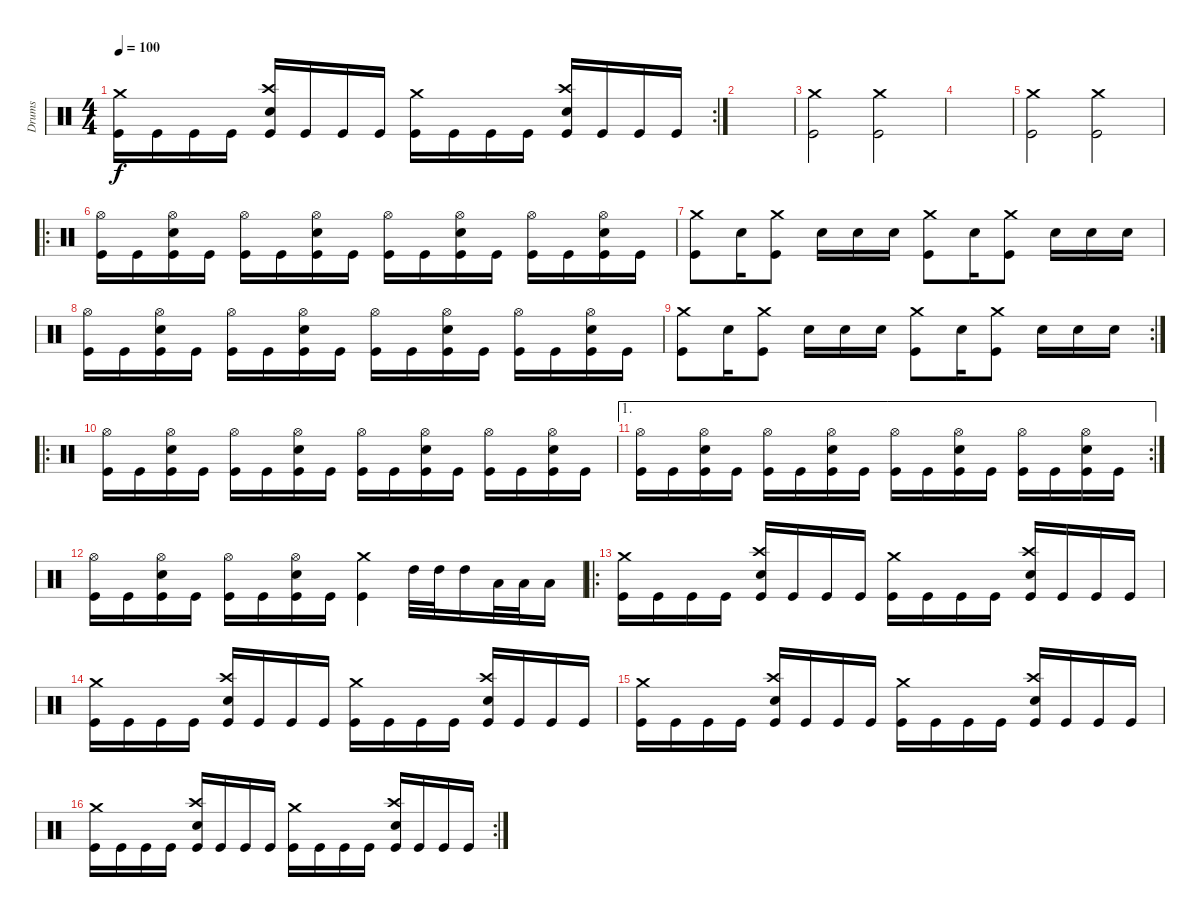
\track ("Drums" "Drums") {instrument percussion}
\staff {score}
\articulation defaults
\rc 2
\ts (4 4)
\tempo 100
\clef neutral
\ks c
("Crash medium (hit)" "Kick (hit)").16{dy f} "Kick (hit)".16 "Kick (hit)".16 "Kick (hit)".16 ("Crash high (hit)" "Snare (hit) 2" "Kick (hit)").16 "Kick (hit)".16 "Kick (hit)".16 "Kick (hit)".16 ("Crash medium (hit)" "Kick (hit)").16 "Kick (hit)".16 "Kick (hit)".16 "Kick (hit)".16 ("Crash high (hit)" "Snare (hit) 2" "Kick (hit)").16 "Kick (hit)".16 "Kick (hit)".16 "Kick (hit)".16 |
|
("Crash medium (hit)" "Kick (hit)").2 ("Crash medium (hit)" "Kick (hit)").2 |
|
("Crash medium (hit)" "Kick (hit)").2 ("Crash medium (hit)" "Kick (hit)").2 |
\ro
("Hi-Hat (open)" "Kick (hit)").16 "Kick (hit)".16 ("Hi-Hat (open)" "Snare (hit) 2" "Kick (hit)").16 "Kick (hit)".16 ("Hi-Hat (open)" "Kick (hit)").16 "Kick (hit)".16 ("Hi-Hat (open)" "Snare (hit) 2" "Kick (hit)").16 "Kick (hit)".16 ("Hi-Hat (open)" "Kick (hit)").16 "Kick (hit)".16 ("Hi-Hat (open)" "Snare (hit) 2" "Kick (hit)").16 "Kick (hit)".16 ("Hi-Hat (open)" "Kick (hit)").16 "Kick (hit)".16 ("Hi-Hat (open)" "Snare (hit) 2" "Kick (hit)").16 "Kick (hit)".16 |
("Crash medium (hit)" "Kick (hit)").8 "Snare (hit) 2".16 ("Crash medium (hit)" "Kick (hit)").8 "Snare (hit) 2".16 "Snare (hit) 2".16 "Snare (hit) 2".16 ("Crash medium (hit)" "Kick (hit)").8 "Snare (hit) 2".16 ("Crash medium (hit)" "Kick (hit)").8 "Snare (hit) 2".16 "Snare (hit) 2".16 "Snare (hit) 2".16 |
("Hi-Hat (open)" "Kick (hit)").16 "Kick (hit)".16 ("Hi-Hat (open)" "Snare (hit) 2" "Kick (hit)").16 "Kick (hit)".16 ("Hi-Hat (open)" "Kick (hit)").16 "Kick (hit)".16 ("Hi-Hat (open)" "Snare (hit) 2" "Kick (hit)").16 "Kick (hit)".16 ("Hi-Hat (open)" "Kick (hit)").16 "Kick (hit)".16 ("Hi-Hat (open)" "Snare (hit) 2" "Kick (hit)").16 "Kick (hit)".16 ("Hi-Hat (open)" "Kick (hit)").16 "Kick (hit)".16 ("Hi-Hat (open)" "Snare (hit) 2" "Kick (hit)").16 "Kick (hit)".16 |
\rc 2
("Crash medium (hit)" "Kick (hit)").8 "Snare (hit) 2".16 ("Crash medium (hit)" "Kick (hit)").8 "Snare (hit) 2".16 "Snare (hit) 2".16 "Snare (hit) 2".16 ("Crash medium (hit)" "Kick (hit)").8 "Snare (hit) 2".16 ("Crash medium (hit)" "Kick (hit)").8 "Snare (hit) 2".16 "Snare (hit) 2".16 "Snare (hit) 2".16 |
\ro
("Hi-Hat (open)" "Kick (hit)").16 "Kick (hit)".16 ("Hi-Hat (open)" "Snare (hit) 2" "Kick (hit)").16 "Kick (hit)".16 ("Hi-Hat (open)" "Kick (hit)").16 "Kick (hit)".16 ("Hi-Hat (open)" "Snare (hit) 2" "Kick (hit)").16 "Kick (hit)".16 ("Hi-Hat (open)" "Kick (hit)").16 "Kick (hit)".16 ("Hi-Hat (open)" "Snare (hit) 2" "Kick (hit)").16 "Kick (hit)".16 ("Hi-Hat (open)" "Kick (hit)").16 "Kick (hit)".16 ("Hi-Hat (open)" "Snare (hit) 2" "Kick (hit)").16 "Kick (hit)".16 |
\ae 1
\rc 2
("Hi-Hat (open)" "Kick (hit)").16 "Kick (hit)".16 ("Hi-Hat (open)" "Snare (hit) 2" "Kick (hit)").16 "Kick (hit)".16 ("Hi-Hat (open)" "Kick (hit)").16 "Kick (hit)".16 ("Hi-Hat (open)" "Snare (hit) 2" "Kick (hit)").16 "Kick (hit)".16 ("Hi-Hat (open)" "Kick (hit)").16 "Kick (hit)".16 ("Hi-Hat (open)" "Snare (hit) 2" "Kick (hit)").16 "Kick (hit)".16 ("Hi-Hat (open)" "Kick (hit)").16 "Kick (hit)".16 ("Hi-Hat (open)" "Snare (hit) 2" "Kick (hit)").16 "Kick (hit)".16 |
("Hi-Hat (open)" "Kick (hit)").16 "Kick (hit)".16 ("Hi-Hat (open)" "Snare (hit) 2" "Kick (hit)").16 "Kick (hit)".16 ("Hi-Hat (open)" "Kick (hit)").16 "Kick (hit)".16 ("Hi-Hat (open)" "Snare (hit) 2" "Kick (hit)").16 "Kick (hit)".16 ("Crash medium (hit)" "Kick (hit)").4 "High Tom (hit)".32 "High Tom (hit)".32 "High Tom (hit)".16 "Low Tom (hit)".32 "Low Tom (hit)".32 "Low Tom (hit)".16 |
\ro
("Crash medium (hit)" "Kick (hit)").16 "Kick (hit)".16 "Kick (hit)".16 "Kick (hit)".16 ("Crash high (hit)" "Snare (hit) 2" "Kick (hit)").16 "Kick (hit)".16 "Kick (hit)".16 "Kick (hit)".16 ("Crash medium (hit)" "Kick (hit)").16 "Kick (hit)".16 "Kick (hit)".16 "Kick (hit)".16 ("Crash high (hit)" "Snare (hit) 2" "Kick (hit)").16 "Kick (hit)".16 "Kick (hit)".16 "Kick (hit)".16 |
("Crash medium (hit)" "Kick (hit)").16 "Kick (hit)".16 "Kick (hit)".16 "Kick (hit)".16 ("Crash high (hit)" "Snare (hit) 2" "Kick (hit)").16 "Kick (hit)".16 "Kick (hit)".16 "Kick (hit)".16 ("Crash medium (hit)" "Kick (hit)").16 "Kick (hit)".16 "Kick (hit)".16 "Kick (hit)".16 ("Crash high (hit)" "Snare (hit) 2" "Kick (hit)").16 "Kick (hit)".16 "Kick (hit)".16 "Kick (hit)".16 |
("Crash medium (hit)" "Kick (hit)").16 "Kick (hit)".16 "Kick (hit)".16 "Kick (hit)".16 ("Crash high (hit)" "Snare (hit) 2" "Kick (hit)").16 "Kick (hit)".16 "Kick (hit)".16 "Kick (hit)".16 ("Crash medium (hit)" "Kick (hit)").16 "Kick (hit)".16 "Kick (hit)".16 "Kick (hit)".16 ("Crash high (hit)" "Snare (hit) 2" "Kick (hit)").16 "Kick (hit)".16 "Kick (hit)".16 "Kick (hit)".16 |
\rc 2
("Crash medium (hit)" "Kick (hit)").16 "Kick (hit)".16 "Kick (hit)".16 "Kick (hit)".16 ("Crash high (hit)" "Snare (hit) 2" "Kick (hit)").16 "Kick (hit)".16 "Kick (hit)".16 "Kick (hit)".16 ("Crash medium (hit)" "Kick (hit)").16 "Kick (hit)".16 "Kick (hit)".16 "Kick (hit)".16 ("Crash high (hit)" "Snare (hit) 2" "Kick (hit)").16 "Kick (hit)".16 "Kick (hit)".16 "Kick (hit)".16
